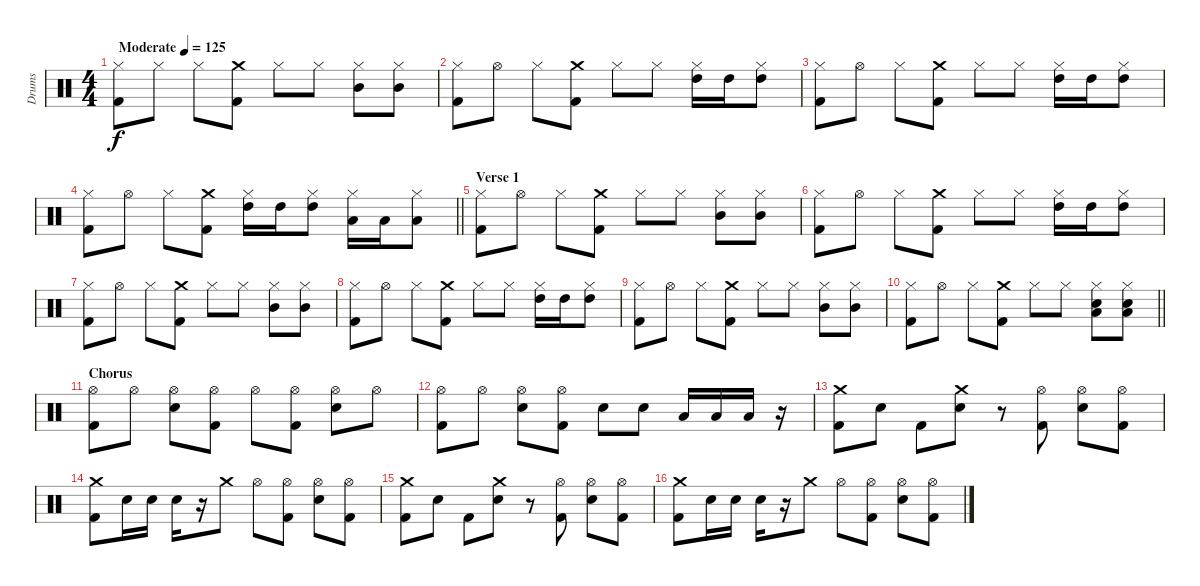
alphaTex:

\track ("Drums" "Drums") {instrument percussion}
\staff {score}
\articulation defaults
\ts (4 4)
\tempo (125 "Moderate")
\clef neutral
\ks c
("Hi-Hat (closed)" "Kick (hit) 2").8{dy f} "Hi-Hat (closed)".8 "Hi-Hat (closed)".8 ("Crash medium (hit)" "Kick (hit) 2").8 "Hi-Hat (closed)".8 "Hi-Hat (closed)".8 ("Hi-Hat (closed)" "Mid Tom (hit)").8 ("Hi-Hat (closed)" "Mid Tom (hit)").8 |
("Hi-Hat (closed)" "Kick (hit) 2").8 "Hi-Hat (open)".8 "Hi-Hat (closed)".8 ("Crash medium (hit)" "Kick (hit) 2").8 "Hi-Hat (closed)".8 "Hi-Hat (closed)".8 ("Hi-Hat (closed)" "High Tom (hit)").16 "High Tom (hit)".16 ("Hi-Hat (closed)" "High Tom (hit)").8 |
("Hi-Hat (closed)" "Kick (hit) 2").8 "Hi-Hat (open)".8 "Hi-Hat (closed)".8 ("Crash medium (hit)" "Kick (hit) 2").8 "Hi-Hat (closed)".8 "Hi-Hat (closed)".8 ("Hi-Hat (closed)" "High Tom (hit)").16 "High Tom (hit)".16 ("Hi-Hat (closed)" "High Tom (hit)").8 |
\barLineRight lightlight
("Hi-Hat (closed)" "Kick (hit) 2").8 "Hi-Hat (open)".8 "Hi-Hat (closed)".8 ("Crash medium (hit)" "Kick (hit) 2").8 ("Hi-Hat (closed)" "High Tom (hit)").16 "High Tom (hit)".16 ("Hi-Hat (closed)" "High Tom (hit)").8 ("Hi-Hat (closed)" "Low Tom (hit)").16 "Low Tom (hit)".16 ("Hi-Hat (closed)" "Low Tom (hit)").8 |
\section ("" "Verse 1")
("Hi-Hat (closed)" "Kick (hit) 2").8 "Hi-Hat (open)".8 "Hi-Hat (closed)".8 ("Crash medium (hit)" "Kick (hit) 2").8 "Hi-Hat (closed)".8 "Hi-Hat (closed)".8 ("Hi-Hat (closed)" "Mid Tom (hit)").8 ("Hi-Hat (closed)" "Mid Tom (hit)").8 |
("Hi-Hat (closed)" "Kick (hit) 2").8 "Hi-Hat (open)".8 "Hi-Hat (closed)".8 ("Crash medium (hit)" "Kick (hit) 2").8 "Hi-Hat (closed)".8 "Hi-Hat (closed)".8 ("Hi-Hat (closed)" "High Tom (hit)").16 "High Tom (hit)".16 ("Hi-Hat (closed)" "High Tom (hit)").8 |
("Hi-Hat (closed)" "Kick (hit) 2").8 "Hi-Hat (open)".8 "Hi-Hat (closed)".8 ("Crash medium (hit)" "Kick (hit) 2").8 "Hi-Hat (closed)".8 "Hi-Hat (closed)".8 ("Hi-Hat (closed)" "Mid Tom (hit)").8 ("Hi-Hat (closed)" "Mid Tom (hit)").8 |
("Hi-Hat (closed)" "Kick (hit) 2").8 "Hi-Hat (open)".8 "Hi-Hat (closed)".8 ("Crash medium (hit)" "Kick (hit) 2").8 "Hi-Hat (closed)".8 "Hi-Hat (closed)".8 ("Hi-Hat (closed)" "High Tom (hit)").16 "High Tom (hit)".16 ("Hi-Hat (closed)" "High Tom (hit)").8 |
("Hi-Hat (closed)" "Kick (hit) 2").8 "Hi-Hat (open)".8 "Hi-Hat (closed)".8 ("Crash medium (hit)" "Kick (hit) 2").8 "Hi-Hat (closed)".8 "Hi-Hat (closed)".8 ("Hi-Hat (closed)" "Mid Tom (hit)").8 ("Hi-Hat (closed)" "Mid Tom (hit)").8 |
\barLineRight lightlight
("Hi-Hat (closed)" "Kick (hit) 2").8 "Hi-Hat (open)".8 "Hi-Hat (closed)".8 ("Crash medium (hit)" "Kick (hit) 2").8 "Hi-Hat (closed)".8 "Hi-Hat (closed)".8 ("Hi-Hat (closed)" "Electric Snare (hit)" "Low Tom (hit)").8 ("Hi-Hat (closed)" "Electric Snare (hit)" "Low Tom (hit)").8 |
\section ("" "Chorus")
("Hi-Hat (open)" "Kick (hit) 2").8 "Hi-Hat (open)".8 ("Hi-Hat (open)" "Electric Snare (hit)").8 ("Hi-Hat (open)" "Kick (hit) 2").8 "Hi-Hat (open)".8 ("Hi-Hat (open)" "Kick (hit) 2").8 ("Hi-Hat (open)" "Electric Snare (hit)").8 "Hi-Hat (open)".8 |
("Hi-Hat (open)" "Kick (hit) 2").8 "Hi-Hat (open)".8 ("Hi-Hat (open)" "Electric Snare (hit)").8 ("Hi-Hat (open)" "Kick (hit) 2").8 "Electric Snare (hit)".8 "Electric Snare (hit)".8 "Low Tom (hit)".16 "Low Tom (hit)".16 "Low Tom (hit)".16 r.16 |
("Crash medium (hit)" "Kick (hit) 2").8 "Electric Snare (hit)".8 "Kick (hit) 2".8 ("Crash medium (hit)" "Electric Snare (hit)").8 r.8 ("Hi-Hat (open)" "Kick (hit) 2").8 ("Hi-Hat (open)" "Electric Snare (hit)").8 ("Hi-Hat (open)" "Kick (hit) 2").8 |
("Crash medium (hit)" "Kick (hit) 2").8 "Electric Snare (hit)".16 "Electric Snare (hit)".16 "Electric Snare (hit)".16 r.16 "Crash medium (hit)".8 "Hi-Hat (open)".8 ("Hi-Hat (open)" "Kick (hit) 2").8 ("Hi-Hat (open)" "Electric Snare (hit)").8 ("Hi-Hat (open)" "Kick (hit) 2").8 |
("Crash medium (hit)" "Kick (hit) 2").8 "Electric Snare (hit)".8 "Kick (hit) 2".8 ("Crash medium (hit)" "Electric Snare (hit)").8 r.8 ("Hi-Hat (open)" "Kick (hit) 2").8 ("Hi-Hat (open)" "Electric Snare (hit)").8 ("Hi-Hat (open)" "Kick (hit) 2").8 |
("Crash medium (hit)" "Kick (hit) 2").8 "Electric Snare (hit)".16 "Electric Snare (hit)".16 "Electric Snare (hit)".16 r.16 "Crash medium (hit)".8 "Hi-Hat (open)".8 ("Hi-Hat (open)" "Kick (hit) 2").8 ("Hi-Hat (open)" "Electric Snare (hit)").8 ("Hi-Hat (open)" "Kick (hit) 2").8
